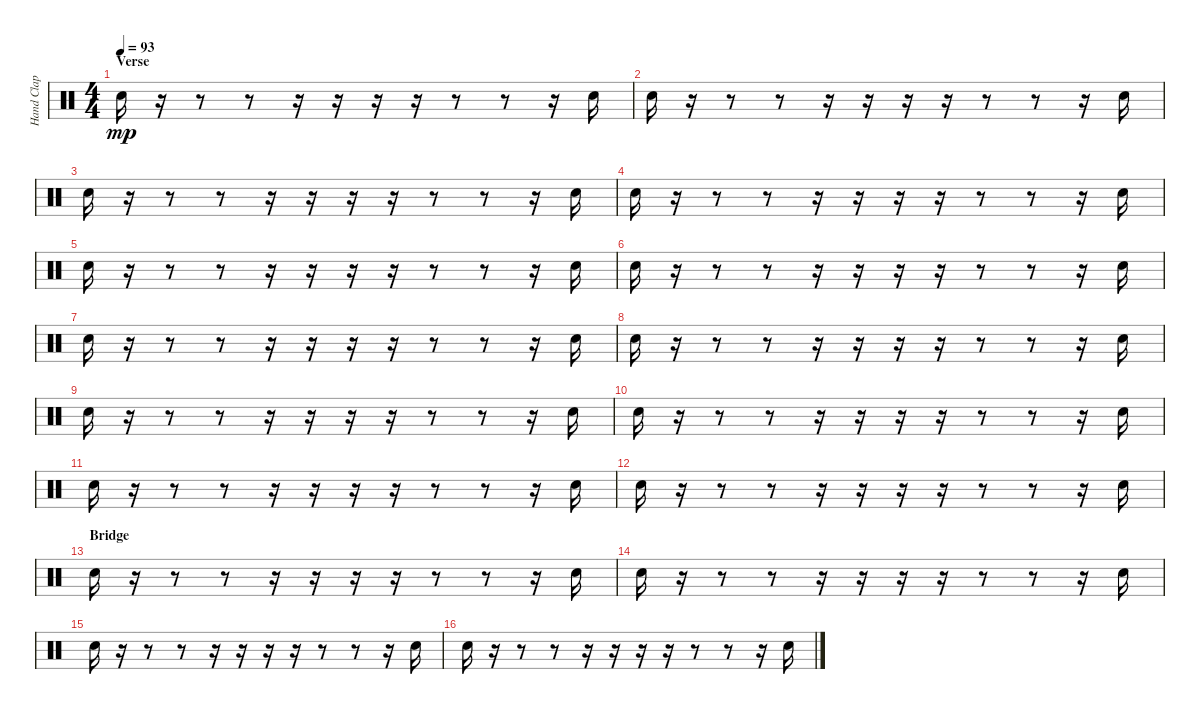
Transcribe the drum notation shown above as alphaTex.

\track ("Hand Clap" "Hand Clap") {instrument percussion}
\staff {score}
\articulation defaults
\ts (4 4)
\section ("" "Verse")
\tempo 93
\clef neutral
\ks c "Hand Clap (hit)".16{dy mp}
r.16 r.8 r.8 r.16 r.16 r.16 r.16 r.8 r.8 r.16 "Hand Clap (hit)".16 |
"Hand Clap (hit)".16 r.16 r.8 r.8 r.16 r.16 r.16 r.16 r.8 r.8 r.16 "Hand Clap (hit)".16 |
"Hand Clap (hit)".16 r.16 r.8 r.8 r.16 r.16 r.16 r.16 r.8 r.8 r.16 "Hand Clap (hit)".16 |
"Hand Clap (hit)".16 r.16 r.8 r.8 r.16 r.16 r.16 r.16 r.8 r.8 r.16 "Hand Clap (hit)".16 |
"Hand Clap (hit)".16 r.16 r.8 r.8 r.16 r.16 r.16 r.16 r.8 r.8 r.16 "Hand Clap (hit)".16 |
"Hand Clap (hit)".16 r.16 r.8 r.8 r.16 r.16 r.16 r.16 r.8 r.8 r.16 "Hand Clap (hit)".16 |
"Hand Clap (hit)".16 r.16 r.8 r.8 r.16 r.16 r.16 r.16 r.8 r.8 r.16 "Hand Clap (hit)".16 |
"Hand Clap (hit)".16 r.16 r.8 r.8 r.16 r.16 r.16 r.16 r.8 r.8 r.16 "Hand Clap (hit)".16 |
"Hand Clap (hit)".16 r.16 r.8 r.8 r.16 r.16 r.16 r.16 r.8 r.8 r.16 "Hand Clap (hit)".16 |
"Hand Clap (hit)".16 r.16 r.8 r.8 r.16 r.16 r.16 r.16 r.8 r.8 r.16 "Hand Clap (hit)".16 |
"Hand Clap (hit)".16 r.16 r.8 r.8 r.16 r.16 r.16 r.16 r.8 r.8 r.16 "Hand Clap (hit)".16 |
"Hand Clap (hit)".16 r.16 r.8 r.8 r.16 r.16 r.16 r.16 r.8 r.8 r.16 "Hand Clap (hit)".16 |
\section ("" "Bridge")
"Hand Clap (hit)".16 r.16 r.8 r.8 r.16 r.16 r.16 r.16 r.8 r.8 r.16 "Hand Clap (hit)".16 |
"Hand Clap (hit)".16 r.16 r.8 r.8 r.16 r.16 r.16 r.16 r.8 r.8 r.16 "Hand Clap (hit)".16 |
"Hand Clap (hit)".16 r.16 r.8 r.8 r.16 r.16 r.16 r.16 r.8 r.8 r.16 "Hand Clap (hit)".16 |
"Hand Clap (hit)".16 r.16 r.8 r.8 r.16 r.16 r.16 r.16 r.8 r.8 r.16 "Hand Clap (hit)".16
